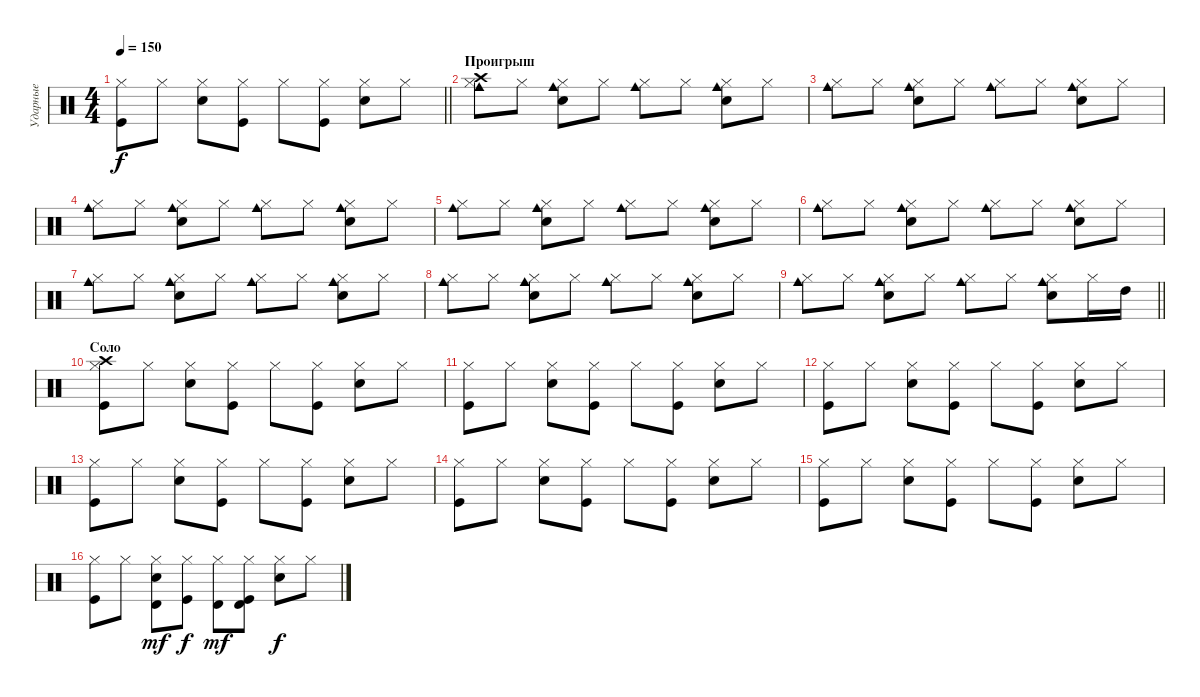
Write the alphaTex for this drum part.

\track ("Ударные" "Ударные") {instrument percussion}
\staff {score}
\articulation defaults
\ts (4 4)
\tempo 150
\clef neutral
\barLineRight lightlight
\ks c
("Kick (hit)" "Hi-Hat (closed)").8{dy f} "Hi-Hat (closed)".8 ("Snare (hit) 2" "Hi-Hat (closed)").8 ("Kick (hit)" "Hi-Hat (closed)").8 "Hi-Hat (closed)".8 ("Kick (hit)" "Hi-Hat (closed)").8 ("Snare (hit) 2" "Hi-Hat (closed)").8 "Hi-Hat (closed)".8 |
\section ("" "Проигрыш")
("Hi-Hat (closed)" "Crash high (hit)" "Cowbell medium (hit)").8 "Hi-Hat (closed)".8 ("Snare (hit) 2" "Hi-Hat (closed)" "Cowbell medium (hit)").8 "Hi-Hat (closed)".8 ("Hi-Hat (closed)" "Cowbell medium (hit)").8 "Hi-Hat (closed)".8 ("Snare (hit) 2" "Hi-Hat (closed)" "Cowbell medium (hit)").8 "Hi-Hat (closed)".8 |
("Hi-Hat (closed)" "Cowbell medium (hit)").8 "Hi-Hat (closed)".8 ("Snare (hit) 2" "Hi-Hat (closed)" "Cowbell medium (hit)").8 "Hi-Hat (closed)".8 ("Hi-Hat (closed)" "Cowbell medium (hit)").8 "Hi-Hat (closed)".8 ("Snare (hit) 2" "Hi-Hat (closed)" "Cowbell medium (hit)").8 "Hi-Hat (closed)".8 |
("Hi-Hat (closed)" "Cowbell medium (hit)").8 "Hi-Hat (closed)".8 ("Snare (hit) 2" "Hi-Hat (closed)" "Cowbell medium (hit)").8 "Hi-Hat (closed)".8 ("Hi-Hat (closed)" "Cowbell medium (hit)").8 "Hi-Hat (closed)".8 ("Snare (hit) 2" "Hi-Hat (closed)" "Cowbell medium (hit)").8 "Hi-Hat (closed)".8 |
("Hi-Hat (closed)" "Cowbell medium (hit)").8 "Hi-Hat (closed)".8 ("Snare (hit) 2" "Hi-Hat (closed)" "Cowbell medium (hit)").8 "Hi-Hat (closed)".8 ("Hi-Hat (closed)" "Cowbell medium (hit)").8 "Hi-Hat (closed)".8 ("Snare (hit) 2" "Hi-Hat (closed)" "Cowbell medium (hit)").8 "Hi-Hat (closed)".8 |
("Hi-Hat (closed)" "Cowbell medium (hit)").8 "Hi-Hat (closed)".8 ("Snare (hit) 2" "Hi-Hat (closed)" "Cowbell medium (hit)").8 "Hi-Hat (closed)".8 ("Hi-Hat (closed)" "Cowbell medium (hit)").8 "Hi-Hat (closed)".8 ("Snare (hit) 2" "Hi-Hat (closed)" "Cowbell medium (hit)").8 "Hi-Hat (closed)".8 |
("Hi-Hat (closed)" "Cowbell medium (hit)").8 "Hi-Hat (closed)".8 ("Snare (hit) 2" "Hi-Hat (closed)" "Cowbell medium (hit)").8 "Hi-Hat (closed)".8 ("Hi-Hat (closed)" "Cowbell medium (hit)").8 "Hi-Hat (closed)".8 ("Snare (hit) 2" "Hi-Hat (closed)" "Cowbell medium (hit)").8 "Hi-Hat (closed)".8 |
("Hi-Hat (closed)" "Cowbell medium (hit)").8 "Hi-Hat (closed)".8 ("Snare (hit) 2" "Hi-Hat (closed)" "Cowbell medium (hit)").8 "Hi-Hat (closed)".8 ("Hi-Hat (closed)" "Cowbell medium (hit)").8 "Hi-Hat (closed)".8 ("Snare (hit) 2" "Hi-Hat (closed)" "Cowbell medium (hit)").8 "Hi-Hat (closed)".8 |
\barLineRight lightlight
("Hi-Hat (closed)" "Cowbell medium (hit)").8 "Hi-Hat (closed)".8 ("Snare (hit) 2" "Hi-Hat (closed)" "Cowbell medium (hit)").8 "Hi-Hat (closed)".8 ("Hi-Hat (closed)" "Cowbell medium (hit)").8 "Hi-Hat (closed)".8 ("Snare (hit) 2" "Hi-Hat (closed)" "Cowbell medium (hit)").8 "Hi-Hat (closed)".16 "High Tom (hit)".16 |
\section ("" "Соло")
("Kick (hit)" "Hi-Hat (closed)" "Crash high (hit)").8 "Hi-Hat (closed)".8 ("Snare (hit) 2" "Hi-Hat (closed)").8 ("Kick (hit)" "Hi-Hat (closed)").8 "Hi-Hat (closed)".8 ("Kick (hit)" "Hi-Hat (closed)").8 ("Snare (hit) 2" "Hi-Hat (closed)").8 "Hi-Hat (closed)".8 |
("Kick (hit)" "Hi-Hat (closed)").8 "Hi-Hat (closed)".8 ("Snare (hit) 2" "Hi-Hat (closed)").8 ("Kick (hit)" "Hi-Hat (closed)").8 "Hi-Hat (closed)".8 ("Kick (hit)" "Hi-Hat (closed)").8 ("Snare (hit) 2" "Hi-Hat (closed)").8 "Hi-Hat (closed)".8 |
("Kick (hit)" "Hi-Hat (closed)").8 "Hi-Hat (closed)".8 ("Snare (hit) 2" "Hi-Hat (closed)").8 ("Kick (hit)" "Hi-Hat (closed)").8 "Hi-Hat (closed)".8 ("Kick (hit)" "Hi-Hat (closed)").8 ("Snare (hit) 2" "Hi-Hat (closed)").8 "Hi-Hat (closed)".8 |
("Kick (hit)" "Hi-Hat (closed)").8 "Hi-Hat (closed)".8 ("Snare (hit) 2" "Hi-Hat (closed)").8 ("Kick (hit)" "Hi-Hat (closed)").8 "Hi-Hat (closed)".8 ("Kick (hit)" "Hi-Hat (closed)").8 ("Snare (hit) 2" "Hi-Hat (closed)").8 "Hi-Hat (closed)".8 |
("Kick (hit)" "Hi-Hat (closed)").8 "Hi-Hat (closed)".8 ("Snare (hit) 2" "Hi-Hat (closed)").8 ("Kick (hit)" "Hi-Hat (closed)").8 "Hi-Hat (closed)".8 ("Kick (hit)" "Hi-Hat (closed)").8 ("Snare (hit) 2" "Hi-Hat (closed)").8 "Hi-Hat (closed)".8 |
("Kick (hit)" "Hi-Hat (closed)").8 "Hi-Hat (closed)".8 ("Snare (hit) 2" "Hi-Hat (closed)").8 ("Kick (hit)" "Hi-Hat (closed)").8 "Hi-Hat (closed)".8 ("Kick (hit)" "Hi-Hat (closed)").8 ("Snare (hit) 2" "Hi-Hat (closed)").8 "Hi-Hat (closed)".8 |
("Kick (hit)" "Hi-Hat (closed)").8 "Hi-Hat (closed)".8 ("Snare (hit) 2" "Hi-Hat (closed)" "Timbale high (hit)").8{dy mf} ("Kick (hit)" "Hi-Hat (closed)").8{dy f} ("Hi-Hat (closed)" "Timbale high (hit)").8{dy mf} ("Kick (hit)" "Hi-Hat (closed)" "Timbale high (hit)").8 ("Snare (hit) 2" "Hi-Hat (closed)").8{dy f} "Hi-Hat (closed)".8
